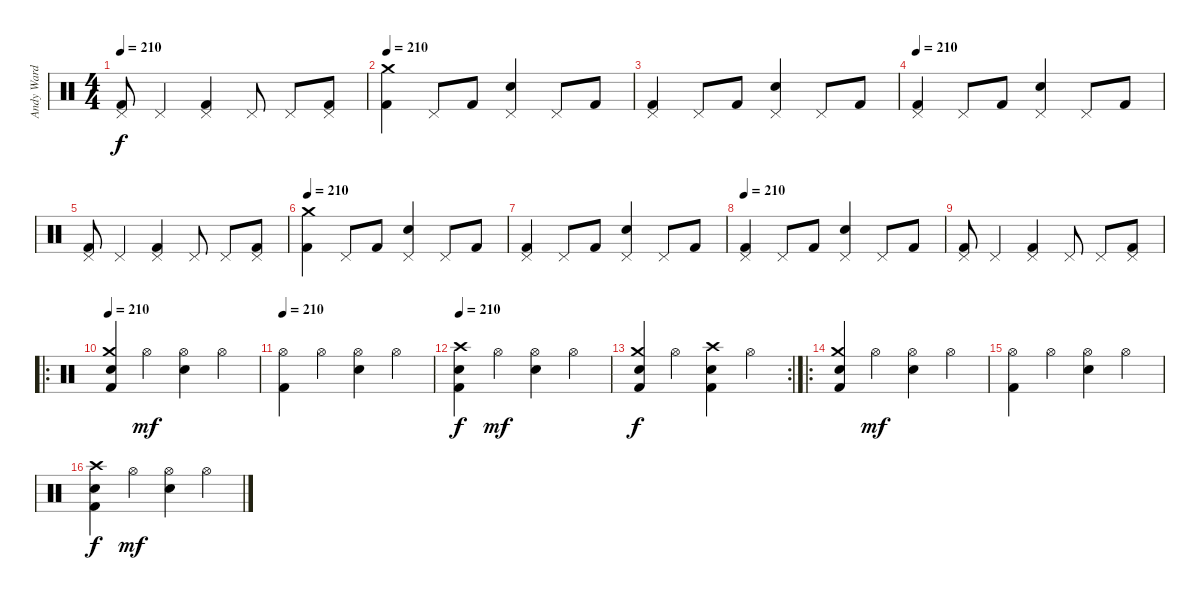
\track ("Andy Ward" "Andy Ward") {instrument percussion}
\staff {score}
\articulation defaults
\ts (4 4)
\tempo 210
\clef neutral
\ks c
("Pedal Hi-Hat (hit)" "Kick (hit) 2").8{dy f} "Pedal Hi-Hat (hit)".4 ("Pedal Hi-Hat (hit)" "Kick (hit) 2").4 "Pedal Hi-Hat (hit)".8 "Pedal Hi-Hat (hit)".8 ("Pedal Hi-Hat (hit)" "Kick (hit) 2").8 |
\tempo 210
("Crash medium (hit)" "Kick (hit) 2").4 "Pedal Hi-Hat (hit)".8 "Kick (hit) 2".8 ("Pedal Hi-Hat (hit)" "Electric Snare (hit)").4 "Pedal Hi-Hat (hit)".8 "Kick (hit) 2".8 |
("Pedal Hi-Hat (hit)" "Kick (hit) 2").4 "Pedal Hi-Hat (hit)".8 "Kick (hit) 2".8 ("Pedal Hi-Hat (hit)" "Electric Snare (hit)").4 "Pedal Hi-Hat (hit)".8 "Kick (hit) 2".8 |
\tempo 210
("Pedal Hi-Hat (hit)" "Kick (hit) 2").4 "Pedal Hi-Hat (hit)".8 "Kick (hit) 2".8 ("Pedal Hi-Hat (hit)" "Electric Snare (hit)").4 "Pedal Hi-Hat (hit)".8 "Kick (hit) 2".8 |
("Pedal Hi-Hat (hit)" "Kick (hit) 2").8 "Pedal Hi-Hat (hit)".4 ("Pedal Hi-Hat (hit)" "Kick (hit) 2").4 "Pedal Hi-Hat (hit)".8 "Pedal Hi-Hat (hit)".8 ("Pedal Hi-Hat (hit)" "Kick (hit) 2").8 |
\tempo 210
("Crash medium (hit)" "Kick (hit) 2").4 "Pedal Hi-Hat (hit)".8 "Kick (hit) 2".8 ("Pedal Hi-Hat (hit)" "Electric Snare (hit)").4 "Pedal Hi-Hat (hit)".8 "Kick (hit) 2".8 |
("Pedal Hi-Hat (hit)" "Kick (hit) 2").4 "Pedal Hi-Hat (hit)".8 "Kick (hit) 2".8 ("Pedal Hi-Hat (hit)" "Electric Snare (hit)").4 "Pedal Hi-Hat (hit)".8 "Kick (hit) 2".8 |
\tempo 210
("Pedal Hi-Hat (hit)" "Kick (hit) 2").4 "Pedal Hi-Hat (hit)".8 "Kick (hit) 2".8 ("Pedal Hi-Hat (hit)" "Electric Snare (hit)").4 "Pedal Hi-Hat (hit)".8 "Kick (hit) 2".8 |
("Pedal Hi-Hat (hit)" "Kick (hit) 2").8 "Pedal Hi-Hat (hit)".4 ("Pedal Hi-Hat (hit)" "Kick (hit) 2").4 "Pedal Hi-Hat (hit)".8 "Pedal Hi-Hat (hit)".8 ("Pedal Hi-Hat (hit)" "Kick (hit) 2").8 |
\ro
\tempo 210
("Crash medium (hit)" "Electric Snare (hit)" "Kick (hit) 2").4 "Hi-Hat (open)".4{dy mf} ("Hi-Hat (open)" "Electric Snare (hit)").4 "Hi-Hat (open)".4 |
\tempo 210
("Hi-Hat (open)" "Kick (hit) 2").4 "Hi-Hat (open)".4 ("Hi-Hat (open)" "Electric Snare (hit)").4 "Hi-Hat (open)".4 |
\tempo 210
("Crash high (hit)" "Electric Snare (hit)" "Kick (hit) 2").4{dy f} "Hi-Hat (open)".4{dy mf} ("Hi-Hat (open)" "Electric Snare (hit)").4 "Hi-Hat (open)".4 |
\rc 2
("Crash medium (hit)" "Electric Snare (hit)" "Kick (hit) 2").4{dy f} "Hi-Hat (open)".4 ("Crash high (hit)" "Electric Snare (hit)" "Kick (hit) 2").4 "Hi-Hat (open)".4 |
\ro
("Crash medium (hit)" "Electric Snare (hit)" "Kick (hit) 2").4 "Hi-Hat (open)".4{dy mf} ("Hi-Hat (open)" "Electric Snare (hit)").4 "Hi-Hat (open)".4 |
("Hi-Hat (open)" "Kick (hit) 2").4 "Hi-Hat (open)".4 ("Hi-Hat (open)" "Electric Snare (hit)").4 "Hi-Hat (open)".4 |
("Crash high (hit)" "Electric Snare (hit)" "Kick (hit) 2").4{dy f} "Hi-Hat (open)".4{dy mf} ("Hi-Hat (open)" "Electric Snare (hit)").4 "Hi-Hat (open)".4
